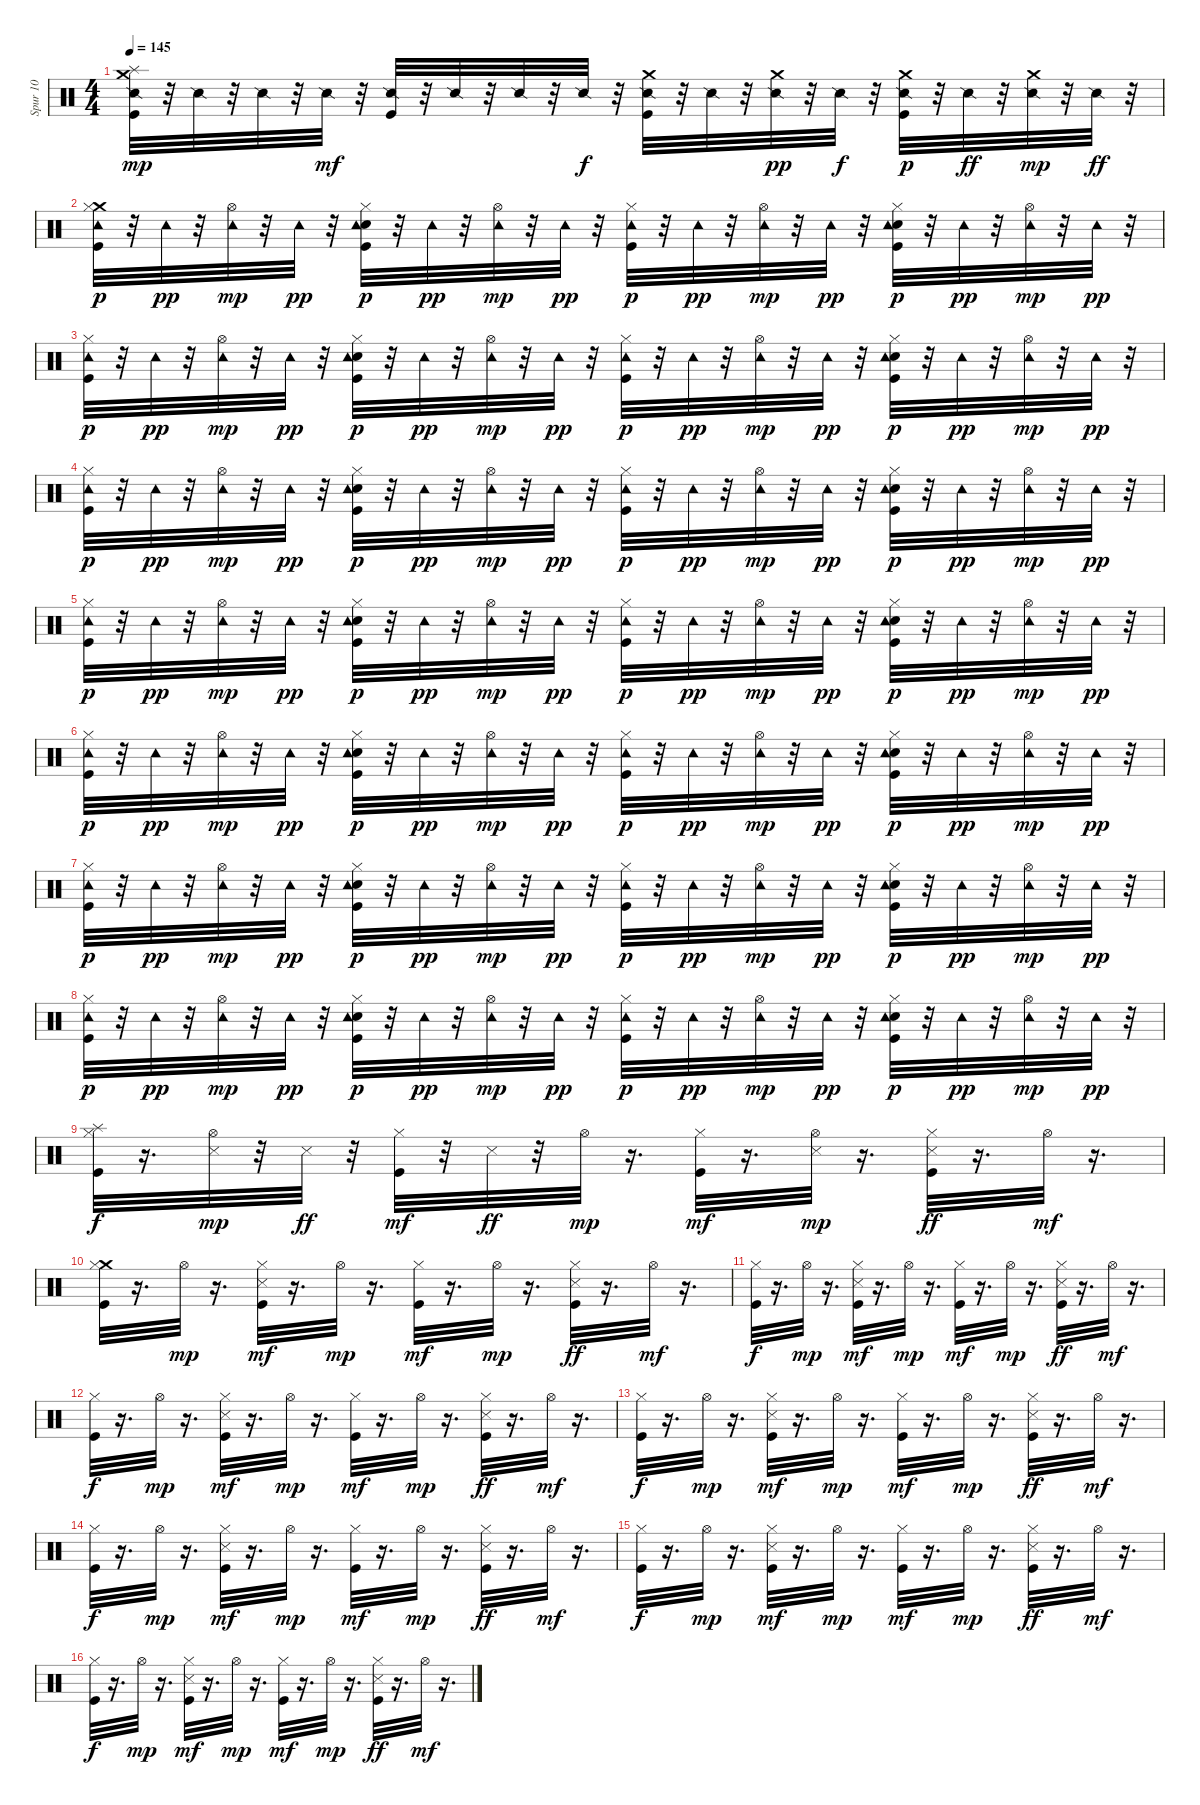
\track ("Spur 10" "Spur 10") {instrument percussion}
\staff {score}
\articulation defaults
\ts (4 4)
\tempo 145
\clef neutral
\ks c
("Crash medium (hit)" "Snare (side stick) 2" "Kick (hit)" "Splash (hit)").32{dy mp balance 8} r.32 "Snare (side stick) 2".32 r.32 "Snare (side stick) 2".32 r.32 "Snare (side stick) 2".32{dy mf} r.32 ("Snare (side stick) 2" "Kick (hit)").32 r.32 "Snare (side stick) 2".32 r.32 "Snare (side stick) 2".32 r.32 "Snare (side stick) 2".32{dy f} r.32 ("Snare (side stick) 2" "Kick (hit)" "Crash medium (hit)").32{balance 10} r.32 "Snare (side stick) 2".32 r.32 ("Snare (side stick) 2" "Crash medium (hit)").32{dy pp balance 14} r.32 "Snare (side stick) 2".32{dy f} r.32 ("Snare (side stick) 2" "Kick (hit)" "Crash medium (hit)").32{dy p balance 7} r.32 "Snare (side stick) 2".32{dy ff} r.32 ("Snare (side stick) 2" "Crash medium (hit)").32{dy mp balance 0} r.32 "Snare (side stick) 2".32{dy ff} r.32 |
("Crash medium (hit)" "Kick (hit)" "Hi-Hat (closed)" "Tambourine (hit)").32{dy p balance 8} r.32 "Tambourine (hit)".32{dy pp} r.32 ("Hi-Hat (open)" "Tambourine (hit)").32{dy mp} r.32 "Tambourine (hit)".32{dy pp} r.32 ("Kick (hit)" "Snare (hit) 2" "Hi-Hat (closed)" "Tambourine (hit)").32{dy p} r.32 "Tambourine (hit)".32{dy pp} r.32 ("Hi-Hat (open)" "Tambourine (hit)").32{dy mp} r.32 "Tambourine (hit)".32{dy pp} r.32 ("Kick (hit)" "Hi-Hat (closed)" "Tambourine (hit)").32{dy p} r.32 "Tambourine (hit)".32{dy pp} r.32 ("Hi-Hat (open)" "Tambourine (hit)").32{dy mp} r.32 "Tambourine (hit)".32{dy pp} r.32 ("Kick (hit)" "Snare (hit) 2" "Hi-Hat (closed)" "Tambourine (hit)").32{dy p} r.32 "Tambourine (hit)".32{dy pp} r.32 ("Hi-Hat (open)" "Tambourine (hit)").32{dy mp} r.32 "Tambourine (hit)".32{dy pp} r.32 |
("Kick (hit)" "Hi-Hat (closed)" "Tambourine (hit)").32{dy p} r.32 "Tambourine (hit)".32{dy pp} r.32 ("Hi-Hat (open)" "Tambourine (hit)").32{dy mp} r.32 "Tambourine (hit)".32{dy pp} r.32 ("Kick (hit)" "Snare (hit) 2" "Hi-Hat (closed)" "Tambourine (hit)").32{dy p} r.32 "Tambourine (hit)".32{dy pp} r.32 ("Hi-Hat (open)" "Tambourine (hit)").32{dy mp} r.32 "Tambourine (hit)".32{dy pp} r.32 ("Kick (hit)" "Hi-Hat (closed)" "Tambourine (hit)").32{dy p} r.32 "Tambourine (hit)".32{dy pp} r.32 ("Hi-Hat (open)" "Tambourine (hit)").32{dy mp} r.32 "Tambourine (hit)".32{dy pp} r.32 ("Kick (hit)" "Snare (hit) 2" "Hi-Hat (closed)" "Tambourine (hit)").32{dy p} r.32 "Tambourine (hit)".32{dy pp} r.32 ("Hi-Hat (open)" "Tambourine (hit)").32{dy mp} r.32 "Tambourine (hit)".32{dy pp} r.32 |
("Kick (hit)" "Hi-Hat (closed)" "Tambourine (hit)").32{dy p} r.32 "Tambourine (hit)".32{dy pp} r.32 ("Hi-Hat (open)" "Tambourine (hit)").32{dy mp} r.32 "Tambourine (hit)".32{dy pp} r.32 ("Kick (hit)" "Snare (hit) 2" "Hi-Hat (closed)" "Tambourine (hit)").32{dy p} r.32 "Tambourine (hit)".32{dy pp} r.32 ("Hi-Hat (open)" "Tambourine (hit)").32{dy mp} r.32 "Tambourine (hit)".32{dy pp} r.32 ("Kick (hit)" "Hi-Hat (closed)" "Tambourine (hit)").32{dy p} r.32 "Tambourine (hit)".32{dy pp} r.32 ("Hi-Hat (open)" "Tambourine (hit)").32{dy mp} r.32 "Tambourine (hit)".32{dy pp} r.32 ("Kick (hit)" "Snare (hit) 2" "Hi-Hat (closed)" "Tambourine (hit)").32{dy p} r.32 "Tambourine (hit)".32{dy pp} r.32 ("Hi-Hat (open)" "Tambourine (hit)").32{dy mp} r.32 "Tambourine (hit)".32{dy pp} r.32 |
("Kick (hit)" "Hi-Hat (closed)" "Tambourine (hit)").32{dy p} r.32 "Tambourine (hit)".32{dy pp} r.32 ("Hi-Hat (open)" "Tambourine (hit)").32{dy mp} r.32 "Tambourine (hit)".32{dy pp} r.32 ("Kick (hit)" "Snare (hit) 2" "Hi-Hat (closed)" "Tambourine (hit)").32{dy p} r.32 "Tambourine (hit)".32{dy pp} r.32 ("Hi-Hat (open)" "Tambourine (hit)").32{dy mp} r.32 "Tambourine (hit)".32{dy pp} r.32 ("Kick (hit)" "Hi-Hat (closed)" "Tambourine (hit)").32{dy p} r.32 "Tambourine (hit)".32{dy pp} r.32 ("Hi-Hat (open)" "Tambourine (hit)").32{dy mp} r.32 "Tambourine (hit)".32{dy pp} r.32 ("Kick (hit)" "Snare (hit) 2" "Hi-Hat (closed)" "Tambourine (hit)").32{dy p} r.32 "Tambourine (hit)".32{dy pp} r.32 ("Hi-Hat (open)" "Tambourine (hit)").32{dy mp} r.32 "Tambourine (hit)".32{dy pp} r.32 |
("Kick (hit)" "Hi-Hat (closed)" "Tambourine (hit)").32{dy p} r.32 "Tambourine (hit)".32{dy pp} r.32 ("Hi-Hat (open)" "Tambourine (hit)").32{dy mp} r.32 "Tambourine (hit)".32{dy pp} r.32 ("Kick (hit)" "Snare (hit) 2" "Hi-Hat (closed)" "Tambourine (hit)").32{dy p} r.32 "Tambourine (hit)".32{dy pp} r.32 ("Hi-Hat (open)" "Tambourine (hit)").32{dy mp} r.32 "Tambourine (hit)".32{dy pp} r.32 ("Kick (hit)" "Hi-Hat (closed)" "Tambourine (hit)").32{dy p} r.32 "Tambourine (hit)".32{dy pp} r.32 ("Hi-Hat (open)" "Tambourine (hit)").32{dy mp} r.32 "Tambourine (hit)".32{dy pp} r.32 ("Kick (hit)" "Snare (hit) 2" "Hi-Hat (closed)" "Tambourine (hit)").32{dy p} r.32 "Tambourine (hit)".32{dy pp} r.32 ("Hi-Hat (open)" "Tambourine (hit)").32{dy mp} r.32 "Tambourine (hit)".32{dy pp} r.32 |
("Kick (hit)" "Hi-Hat (closed)" "Tambourine (hit)").32{dy p} r.32 "Tambourine (hit)".32{dy pp} r.32 ("Hi-Hat (open)" "Tambourine (hit)").32{dy mp} r.32 "Tambourine (hit)".32{dy pp} r.32 ("Kick (hit)" "Snare (hit) 2" "Hi-Hat (closed)" "Tambourine (hit)").32{dy p} r.32 "Tambourine (hit)".32{dy pp} r.32 ("Hi-Hat (open)" "Tambourine (hit)").32{dy mp} r.32 "Tambourine (hit)".32{dy pp} r.32 ("Kick (hit)" "Hi-Hat (closed)" "Tambourine (hit)").32{dy p} r.32 "Tambourine (hit)".32{dy pp} r.32 ("Hi-Hat (open)" "Tambourine (hit)").32{dy mp} r.32 "Tambourine (hit)".32{dy pp} r.32 ("Kick (hit)" "Snare (hit) 2" "Hi-Hat (closed)" "Tambourine (hit)").32{dy p} r.32 "Tambourine (hit)".32{dy pp} r.32 ("Hi-Hat (open)" "Tambourine (hit)").32{dy mp} r.32 "Tambourine (hit)".32{dy pp} r.32 |
("Kick (hit)" "Hi-Hat (closed)" "Tambourine (hit)").32{dy p} r.32 "Tambourine (hit)".32{dy pp} r.32 ("Hi-Hat (open)" "Tambourine (hit)").32{dy mp} r.32 "Tambourine (hit)".32{dy pp} r.32 ("Kick (hit)" "Snare (hit) 2" "Hi-Hat (closed)" "Tambourine (hit)").32{dy p} r.32 "Tambourine (hit)".32{dy pp} r.32 ("Hi-Hat (open)" "Tambourine (hit)").32{dy mp} r.32 "Tambourine (hit)".32{dy pp} r.32 ("Kick (hit)" "Hi-Hat (closed)" "Tambourine (hit)").32{dy p} r.32 "Tambourine (hit)".32{dy pp} r.32 ("Hi-Hat (open)" "Tambourine (hit)").32{dy mp} r.32 "Tambourine (hit)".32{dy pp} r.32 ("Kick (hit)" "Snare (hit) 2" "Hi-Hat (closed)" "Tambourine (hit)").32{dy p} r.32 "Tambourine (hit)".32{dy pp} r.32 ("Hi-Hat (open)" "Tambourine (hit)").32{dy mp} r.32 "Tambourine (hit)".32{dy pp} r.32 |
("Kick (hit)" "Hi-Hat (closed)" "Splash (hit)").32{dy f} r.16{d} ("Snare (side stick) 3" "Hi-Hat (open)").32{dy mp} r.32 "Snare (side stick) 3".32{dy ff} r.32 ("Kick (hit)" "Hi-Hat (closed)").32{dy mf} r.32 "Snare (side stick) 3".32{dy ff} r.32 "Hi-Hat (open)".32{dy mp} r.16{d} ("Kick (hit)" "Hi-Hat (closed)").32{dy mf} r.16{d} ("Snare (side stick) 3" "Hi-Hat (open)").32{dy mp} r.16{d} ("Kick (hit)" "Snare (side stick) 3" "Hi-Hat (closed)").32{dy ff} r.16{d} "Hi-Hat (open)".32{dy mf} r.16{d} |
("Crash medium (hit)" "Kick (hit)" "Hi-Hat (closed)").32 r.16{d} "Hi-Hat (open)".32{dy mp} r.16{d} ("Kick (hit)" "Snare (side stick) 3" "Hi-Hat (closed)").32{dy mf} r.16{d} "Hi-Hat (open)".32{dy mp} r.16{d} ("Kick (hit)" "Hi-Hat (closed)").32{dy mf} r.16{d} "Hi-Hat (open)".32{dy mp} r.16{d} ("Kick (hit)" "Snare (side stick) 3" "Hi-Hat (closed)").32{dy ff} r.16{d} "Hi-Hat (open)".32{dy mf} r.16{d} |
("Kick (hit)" "Hi-Hat (closed)").32{dy f} r.16{d} "Hi-Hat (open)".32{dy mp} r.16{d} ("Kick (hit)" "Snare (side stick) 3" "Hi-Hat (closed)").32{dy mf} r.16{d} "Hi-Hat (open)".32{dy mp} r.16{d} ("Kick (hit)" "Hi-Hat (closed)").32{dy mf} r.16{d} "Hi-Hat (open)".32{dy mp} r.16{d} ("Kick (hit)" "Snare (side stick) 3" "Hi-Hat (closed)").32{dy ff} r.16{d} "Hi-Hat (open)".32{dy mf} r.16{d} |
("Kick (hit)" "Hi-Hat (closed)").32{dy f} r.16{d} "Hi-Hat (open)".32{dy mp} r.16{d} ("Kick (hit)" "Snare (side stick) 3" "Hi-Hat (closed)").32{dy mf} r.16{d} "Hi-Hat (open)".32{dy mp} r.16{d} ("Kick (hit)" "Hi-Hat (closed)").32{dy mf} r.16{d} "Hi-Hat (open)".32{dy mp} r.16{d} ("Kick (hit)" "Snare (side stick) 3" "Hi-Hat (closed)").32{dy ff} r.16{d} "Hi-Hat (open)".32{dy mf} r.16{d} |
("Kick (hit)" "Hi-Hat (closed)").32{dy f} r.16{d} "Hi-Hat (open)".32{dy mp} r.16{d} ("Kick (hit)" "Snare (side stick) 3" "Hi-Hat (closed)").32{dy mf} r.16{d} "Hi-Hat (open)".32{dy mp} r.16{d} ("Kick (hit)" "Hi-Hat (closed)").32{dy mf} r.16{d} "Hi-Hat (open)".32{dy mp} r.16{d} ("Kick (hit)" "Snare (side stick) 3" "Hi-Hat (closed)").32{dy ff} r.16{d} "Hi-Hat (open)".32{dy mf} r.16{d} |
("Kick (hit)" "Hi-Hat (closed)").32{dy f} r.16{d} "Hi-Hat (open)".32{dy mp} r.16{d} ("Kick (hit)" "Snare (side stick) 3" "Hi-Hat (closed)").32{dy mf} r.16{d} "Hi-Hat (open)".32{dy mp} r.16{d} ("Kick (hit)" "Hi-Hat (closed)").32{dy mf} r.16{d} "Hi-Hat (open)".32{dy mp} r.16{d} ("Kick (hit)" "Snare (side stick) 3" "Hi-Hat (closed)").32{dy ff} r.16{d} "Hi-Hat (open)".32{dy mf} r.16{d} |
("Kick (hit)" "Hi-Hat (closed)").32{dy f} r.16{d} "Hi-Hat (open)".32{dy mp} r.16{d} ("Kick (hit)" "Snare (side stick) 3" "Hi-Hat (closed)").32{dy mf} r.16{d} "Hi-Hat (open)".32{dy mp} r.16{d} ("Kick (hit)" "Hi-Hat (closed)").32{dy mf} r.16{d} "Hi-Hat (open)".32{dy mp} r.16{d} ("Kick (hit)" "Snare (side stick) 3" "Hi-Hat (closed)").32{dy ff} r.16{d} "Hi-Hat (open)".32{dy mf} r.16{d} |
("Kick (hit)" "Hi-Hat (closed)").32{dy f} r.16{d} "Hi-Hat (open)".32{dy mp} r.16{d} ("Kick (hit)" "Snare (side stick) 3" "Hi-Hat (closed)").32{dy mf} r.16{d} "Hi-Hat (open)".32{dy mp} r.16{d} ("Kick (hit)" "Hi-Hat (closed)").32{dy mf} r.16{d} "Hi-Hat (open)".32{dy mp} r.16{d} ("Kick (hit)" "Snare (side stick) 3" "Hi-Hat (closed)").32{dy ff} r.16{d} "Hi-Hat (open)".32{dy mf} r.16{d}
